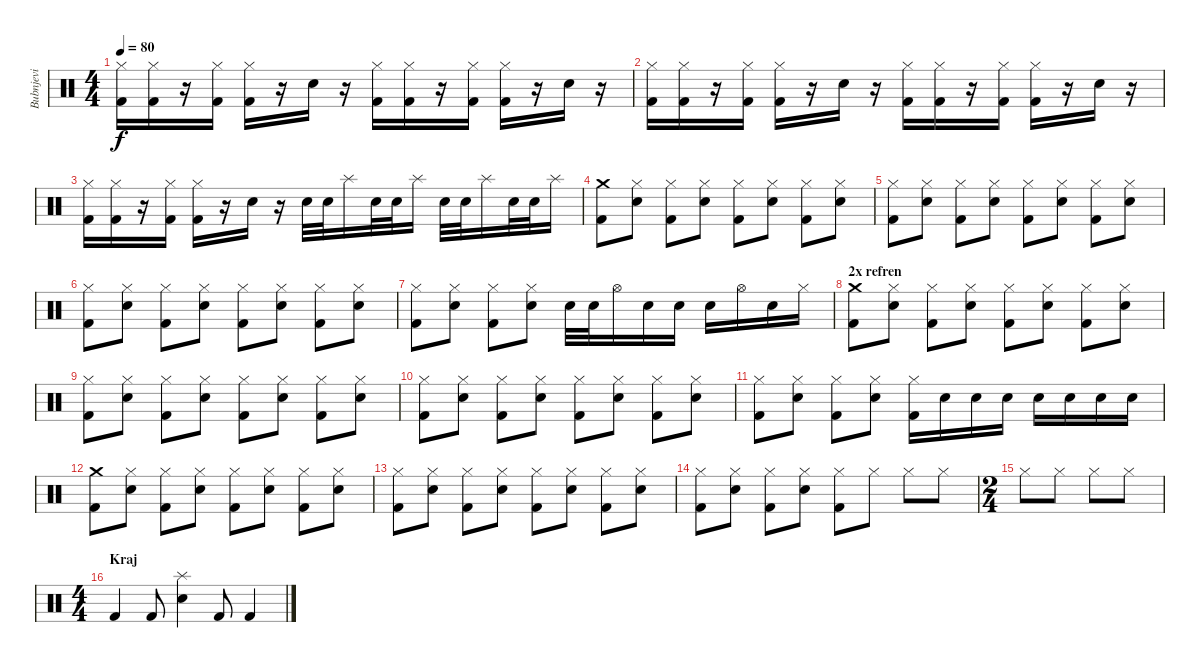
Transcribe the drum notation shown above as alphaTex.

\track ("Bubnjevi" "Bubnjevi") {instrument percussion}
\staff {score}
\articulation defaults
\ts (4 4)
\tempo 80
\clef neutral
\ks c
("Hi-Hat (closed)" "Kick (hit) 2").16{dy f} ("Hi-Hat (closed)" "Kick (hit) 2").16 r.16 ("Hi-Hat (closed)" "Kick (hit) 2").16 ("Hi-Hat (closed)" "Kick (hit) 2").16 r.16 "Electric Snare (hit)".16 r.16 ("Hi-Hat (closed)" "Kick (hit) 2").16 ("Hi-Hat (closed)" "Kick (hit) 2").16 r.16 ("Hi-Hat (closed)" "Kick (hit) 2").16 ("Hi-Hat (closed)" "Kick (hit) 2").16 r.16 "Electric Snare (hit)".16 r.16 |
("Hi-Hat (closed)" "Kick (hit) 2").16 ("Hi-Hat (closed)" "Kick (hit) 2").16 r.16 ("Hi-Hat (closed)" "Kick (hit) 2").16 ("Hi-Hat (closed)" "Kick (hit) 2").16 r.16 "Electric Snare (hit)".16 r.16 ("Hi-Hat (closed)" "Kick (hit) 2").16 ("Hi-Hat (closed)" "Kick (hit) 2").16 r.16 ("Hi-Hat (closed)" "Kick (hit) 2").16 ("Hi-Hat (closed)" "Kick (hit) 2").16 r.16 "Electric Snare (hit)".16 r.16 |
("Hi-Hat (closed)" "Kick (hit) 2").16 ("Hi-Hat (closed)" "Kick (hit) 2").16 r.16 ("Hi-Hat (closed)" "Kick (hit) 2").16 ("Hi-Hat (closed)" "Kick (hit) 2").16 r.16 "Electric Snare (hit)".16 r.16 "Electric Snare (hit)".32 "Electric Snare (hit)".32 "Splash (hit)".16 "Electric Snare (hit)".32 "Electric Snare (hit)".32 "Splash (hit)".16 "Electric Snare (hit)".32 "Electric Snare (hit)".32 "Splash (hit)".16 "Electric Snare (hit)".32 "Electric Snare (hit)".32 "Splash (hit)".16 |
("Crash medium (hit)" "Kick (hit) 2").8 ("Electric Snare (hit)" "Hi-Hat (closed)").8 ("Hi-Hat (closed)" "Kick (hit) 2").8 ("Electric Snare (hit)" "Hi-Hat (closed)").8 ("Hi-Hat (closed)" "Kick (hit) 2").8 ("Electric Snare (hit)" "Hi-Hat (closed)").8 ("Hi-Hat (closed)" "Kick (hit) 2").8 ("Electric Snare (hit)" "Hi-Hat (closed)").8 |
("Hi-Hat (closed)" "Kick (hit) 2").8 ("Electric Snare (hit)" "Hi-Hat (closed)").8 ("Hi-Hat (closed)" "Kick (hit) 2").8 ("Electric Snare (hit)" "Hi-Hat (closed)").8 ("Hi-Hat (closed)" "Kick (hit) 2").8 ("Electric Snare (hit)" "Hi-Hat (closed)").8 ("Hi-Hat (closed)" "Kick (hit) 2").8 ("Electric Snare (hit)" "Hi-Hat (closed)").8 |
("Hi-Hat (closed)" "Kick (hit) 2").8 ("Electric Snare (hit)" "Hi-Hat (closed)").8 ("Hi-Hat (closed)" "Kick (hit) 2").8 ("Electric Snare (hit)" "Hi-Hat (closed)").8 ("Hi-Hat (closed)" "Kick (hit) 2").8 ("Electric Snare (hit)" "Hi-Hat (closed)").8 ("Hi-Hat (closed)" "Kick (hit) 2").8 ("Electric Snare (hit)" "Hi-Hat (closed)").8 |
("Hi-Hat (closed)" "Kick (hit) 2").8 ("Electric Snare (hit)" "Hi-Hat (closed)").8 ("Hi-Hat (closed)" "Kick (hit) 2").8 ("Electric Snare (hit)" "Hi-Hat (closed)").8 "Electric Snare (hit)".32 "Electric Snare (hit)".32 "Hi-Hat (open)".16 "Electric Snare (hit)".16 "Electric Snare (hit)".16 "Electric Snare (hit)".16 "Hi-Hat (open)".16 "Electric Snare (hit)".16 "Hi-Hat (closed)".16 |
\section ("" "2x refren")
("Crash medium (hit)" "Kick (hit) 2").8 ("Electric Snare (hit)" "Hi-Hat (closed)").8 ("Hi-Hat (closed)" "Kick (hit) 2").8 ("Electric Snare (hit)" "Hi-Hat (closed)").8 ("Hi-Hat (closed)" "Kick (hit) 2").8 ("Electric Snare (hit)" "Hi-Hat (closed)").8 ("Hi-Hat (closed)" "Kick (hit) 2").8 ("Electric Snare (hit)" "Hi-Hat (closed)").8 |
("Hi-Hat (closed)" "Kick (hit) 2").8 ("Electric Snare (hit)" "Hi-Hat (closed)").8 ("Hi-Hat (closed)" "Kick (hit) 2").8 ("Electric Snare (hit)" "Hi-Hat (closed)").8 ("Hi-Hat (closed)" "Kick (hit) 2").8 ("Electric Snare (hit)" "Hi-Hat (closed)").8 ("Hi-Hat (closed)" "Kick (hit) 2").8 ("Electric Snare (hit)" "Hi-Hat (closed)").8 |
("Hi-Hat (closed)" "Kick (hit) 2").8 ("Electric Snare (hit)" "Hi-Hat (closed)").8 ("Hi-Hat (closed)" "Kick (hit) 2").8 ("Electric Snare (hit)" "Hi-Hat (closed)").8 ("Hi-Hat (closed)" "Kick (hit) 2").8 ("Electric Snare (hit)" "Hi-Hat (closed)").8 ("Hi-Hat (closed)" "Kick (hit) 2").8 ("Electric Snare (hit)" "Hi-Hat (closed)").8 |
("Hi-Hat (closed)" "Kick (hit) 2").8 ("Electric Snare (hit)" "Hi-Hat (closed)").8 ("Hi-Hat (closed)" "Kick (hit) 2").8 ("Electric Snare (hit)" "Hi-Hat (closed)").8 ("Hi-Hat (closed)" "Kick (hit) 2").16 "Electric Snare (hit)".16 "Electric Snare (hit)".16 "Electric Snare (hit)".16 "Electric Snare (hit)".16 "Electric Snare (hit)".16 "Electric Snare (hit)".16 "Electric Snare (hit)".16 |
("Crash medium (hit)" "Kick (hit) 2").8 ("Electric Snare (hit)" "Hi-Hat (closed)").8 ("Hi-Hat (closed)" "Kick (hit) 2").8 ("Electric Snare (hit)" "Hi-Hat (closed)").8 ("Hi-Hat (closed)" "Kick (hit) 2").8 ("Electric Snare (hit)" "Hi-Hat (closed)").8 ("Hi-Hat (closed)" "Kick (hit) 2").8 ("Electric Snare (hit)" "Hi-Hat (closed)").8 |
("Hi-Hat (closed)" "Kick (hit) 2").8 ("Electric Snare (hit)" "Hi-Hat (closed)").8 ("Hi-Hat (closed)" "Kick (hit) 2").8 ("Electric Snare (hit)" "Hi-Hat (closed)").8 ("Hi-Hat (closed)" "Kick (hit) 2").8 ("Electric Snare (hit)" "Hi-Hat (closed)").8 ("Hi-Hat (closed)" "Kick (hit) 2").8 ("Electric Snare (hit)" "Hi-Hat (closed)").8 |
("Hi-Hat (closed)" "Kick (hit) 2").8 ("Electric Snare (hit)" "Hi-Hat (closed)").8 ("Hi-Hat (closed)" "Kick (hit) 2").8 ("Electric Snare (hit)" "Hi-Hat (closed)").8 ("Hi-Hat (closed)" "Kick (hit) 2").8 "Hi-Hat (closed)".8 "Hi-Hat (closed)".8 "Hi-Hat (closed)".8 |
\ts (2 4)
"Hi-Hat (closed)".8 "Hi-Hat (closed)".8 "Hi-Hat (closed)".8 "Hi-Hat (closed)".8 |
\ts (4 4)
\section ("" "Kraj")
"Kick (hit) 2".4 "Kick (hit) 2".8 ("Splash (hit)" "Electric Snare (hit)").4 "Kick (hit) 2".8 "Kick (hit) 2".4
